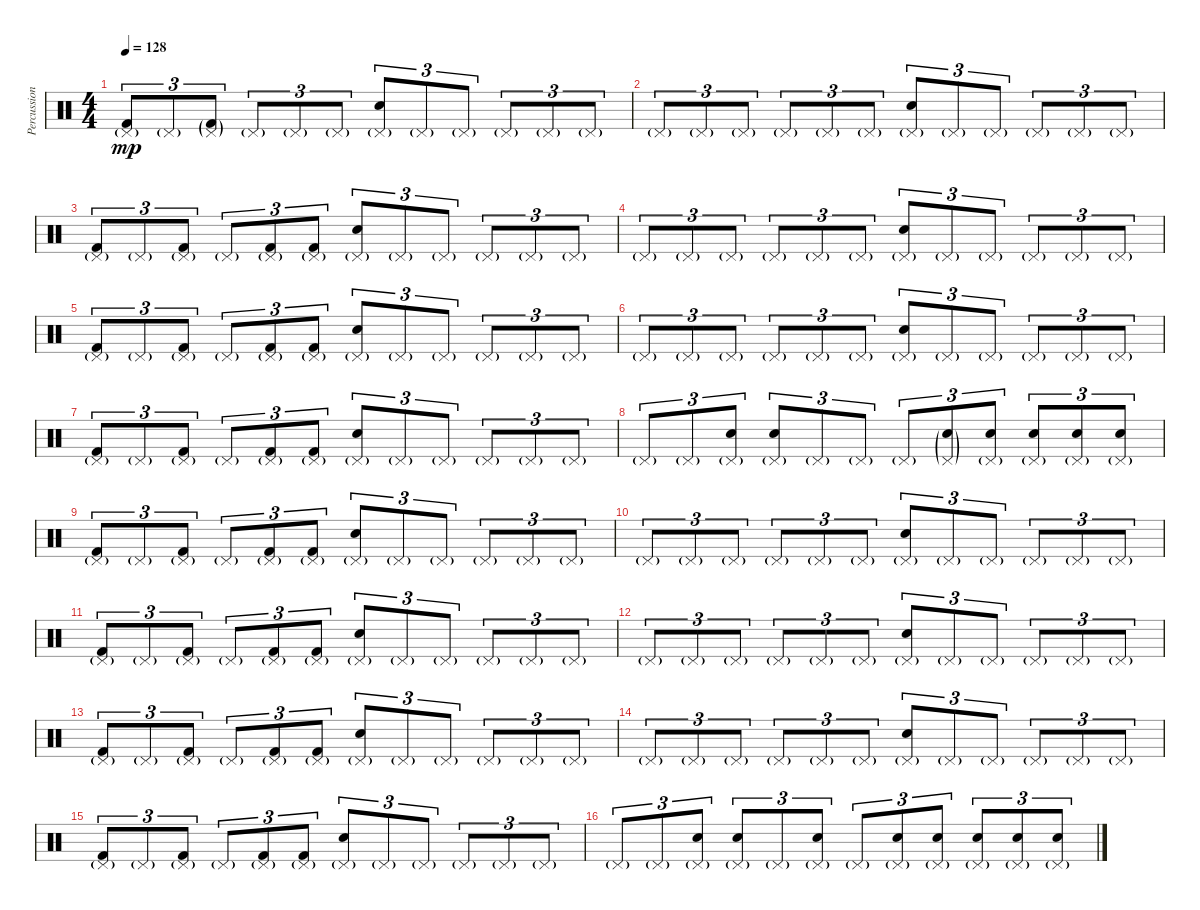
\track ("Percussions" "Percussion") {instrument percussion}
\staff {score}
\articulation defaults
\ts (4 4)
\tempo 128
\clef neutral
\ks c
("Pedal Hi-Hat (hit)"{g} "Kick (hit) 2").8{tu (3 2) dy mp} "Pedal Hi-Hat (hit)"{g}.8{tu (3 2)} ("Pedal Hi-Hat (hit)"{g} "Kick (hit) 2"{g}).8{tu (3 2)} "Pedal Hi-Hat (hit)"{g}.8{tu (3 2)} "Pedal Hi-Hat (hit)"{g}.8{tu (3 2)} "Pedal Hi-Hat (hit)"{g}.8{tu (3 2)} ("Pedal Hi-Hat (hit)"{g} "Electric Snare (hit)").8{tu (3 2)} "Pedal Hi-Hat (hit)"{g}.8{tu (3 2)} "Pedal Hi-Hat (hit)"{g}.8{tu (3 2)} "Pedal Hi-Hat (hit)"{g}.8{tu (3 2)} "Pedal Hi-Hat (hit)"{g}.8{tu (3 2)} "Pedal Hi-Hat (hit)"{g}.8{tu (3 2)} |
"Pedal Hi-Hat (hit)"{g}.8{tu (3 2)} "Pedal Hi-Hat (hit)"{g}.8{tu (3 2)} "Pedal Hi-Hat (hit)"{g}.8{tu (3 2)} "Pedal Hi-Hat (hit)"{g}.8{tu (3 2)} "Pedal Hi-Hat (hit)"{g}.8{tu (3 2)} "Pedal Hi-Hat (hit)"{g}.8{tu (3 2)} ("Pedal Hi-Hat (hit)"{g} "Electric Snare (hit)").8{tu (3 2)} "Pedal Hi-Hat (hit)"{g}.8{tu (3 2)} "Pedal Hi-Hat (hit)"{g}.8{tu (3 2)} "Pedal Hi-Hat (hit)"{g}.8{tu (3 2)} "Pedal Hi-Hat (hit)"{g}.8{tu (3 2)} "Pedal Hi-Hat (hit)"{g}.8{tu (3 2)} |
("Pedal Hi-Hat (hit)"{g} "Kick (hit) 2").8{tu (3 2)} "Pedal Hi-Hat (hit)"{g}.8{tu (3 2)} ("Pedal Hi-Hat (hit)"{g} "Kick (hit) 2").8{tu (3 2)} "Pedal Hi-Hat (hit)"{g}.8{tu (3 2)} ("Pedal Hi-Hat (hit)"{g} "Kick (hit) 2").8{tu (3 2)} ("Pedal Hi-Hat (hit)"{g} "Kick (hit) 2").8{tu (3 2)} ("Pedal Hi-Hat (hit)"{g} "Electric Snare (hit)").8{tu (3 2)} "Pedal Hi-Hat (hit)"{g}.8{tu (3 2)} "Pedal Hi-Hat (hit)"{g}.8{tu (3 2)} "Pedal Hi-Hat (hit)"{g}.8{tu (3 2)} "Pedal Hi-Hat (hit)"{g}.8{tu (3 2)} "Pedal Hi-Hat (hit)"{g}.8{tu (3 2)} |
"Pedal Hi-Hat (hit)"{g}.8{tu (3 2)} "Pedal Hi-Hat (hit)"{g}.8{tu (3 2)} "Pedal Hi-Hat (hit)"{g}.8{tu (3 2)} "Pedal Hi-Hat (hit)"{g}.8{tu (3 2)} "Pedal Hi-Hat (hit)"{g}.8{tu (3 2)} "Pedal Hi-Hat (hit)"{g}.8{tu (3 2)} ("Pedal Hi-Hat (hit)"{g} "Electric Snare (hit)").8{tu (3 2)} "Pedal Hi-Hat (hit)"{g}.8{tu (3 2)} "Pedal Hi-Hat (hit)"{g}.8{tu (3 2)} "Pedal Hi-Hat (hit)"{g}.8{tu (3 2)} "Pedal Hi-Hat (hit)"{g}.8{tu (3 2)} "Pedal Hi-Hat (hit)"{g}.8{tu (3 2)} |
("Pedal Hi-Hat (hit)"{g} "Kick (hit) 2").8{tu (3 2)} "Pedal Hi-Hat (hit)"{g}.8{tu (3 2)} ("Pedal Hi-Hat (hit)"{g} "Kick (hit) 2").8{tu (3 2)} "Pedal Hi-Hat (hit)"{g}.8{tu (3 2)} ("Pedal Hi-Hat (hit)"{g} "Kick (hit) 2").8{tu (3 2)} ("Pedal Hi-Hat (hit)"{g} "Kick (hit) 2").8{tu (3 2)} ("Pedal Hi-Hat (hit)"{g} "Electric Snare (hit)").8{tu (3 2)} "Pedal Hi-Hat (hit)"{g}.8{tu (3 2)} "Pedal Hi-Hat (hit)"{g}.8{tu (3 2)} "Pedal Hi-Hat (hit)"{g}.8{tu (3 2)} "Pedal Hi-Hat (hit)"{g}.8{tu (3 2)} "Pedal Hi-Hat (hit)"{g}.8{tu (3 2)} |
"Pedal Hi-Hat (hit)"{g}.8{tu (3 2)} "Pedal Hi-Hat (hit)"{g}.8{tu (3 2)} "Pedal Hi-Hat (hit)"{g}.8{tu (3 2)} "Pedal Hi-Hat (hit)"{g}.8{tu (3 2)} "Pedal Hi-Hat (hit)"{g}.8{tu (3 2)} "Pedal Hi-Hat (hit)"{g}.8{tu (3 2)} ("Pedal Hi-Hat (hit)"{g} "Electric Snare (hit)").8{tu (3 2)} "Pedal Hi-Hat (hit)"{g}.8{tu (3 2)} "Pedal Hi-Hat (hit)"{g}.8{tu (3 2)} "Pedal Hi-Hat (hit)"{g}.8{tu (3 2)} "Pedal Hi-Hat (hit)"{g}.8{tu (3 2)} "Pedal Hi-Hat (hit)"{g}.8{tu (3 2)} |
("Pedal Hi-Hat (hit)"{g} "Kick (hit) 2").8{tu (3 2)} "Pedal Hi-Hat (hit)"{g}.8{tu (3 2)} ("Pedal Hi-Hat (hit)"{g} "Kick (hit) 2").8{tu (3 2)} "Pedal Hi-Hat (hit)"{g}.8{tu (3 2)} ("Pedal Hi-Hat (hit)"{g} "Kick (hit) 2").8{tu (3 2)} ("Pedal Hi-Hat (hit)"{g} "Kick (hit) 2").8{tu (3 2)} ("Pedal Hi-Hat (hit)"{g} "Electric Snare (hit)").8{tu (3 2)} "Pedal Hi-Hat (hit)"{g}.8{tu (3 2)} "Pedal Hi-Hat (hit)"{g}.8{tu (3 2)} "Pedal Hi-Hat (hit)"{g}.8{tu (3 2)} "Pedal Hi-Hat (hit)"{g}.8{tu (3 2)} "Pedal Hi-Hat (hit)"{g}.8{tu (3 2)} |
"Pedal Hi-Hat (hit)"{g}.8{tu (3 2)} "Pedal Hi-Hat (hit)"{g}.8{tu (3 2)} ("Pedal Hi-Hat (hit)"{g} "Electric Snare (hit)").8{tu (3 2)} ("Pedal Hi-Hat (hit)"{g} "Electric Snare (hit)").8{tu (3 2)} "Pedal Hi-Hat (hit)"{g}.8{tu (3 2)} "Pedal Hi-Hat (hit)"{g}.8{tu (3 2)} "Pedal Hi-Hat (hit)"{g}.8{tu (3 2)} ("Pedal Hi-Hat (hit)"{g} "Electric Snare (hit)"{g}).8{tu (3 2)} ("Pedal Hi-Hat (hit)"{g} "Electric Snare (hit)").8{tu (3 2)} ("Pedal Hi-Hat (hit)"{g} "Electric Snare (hit)").8{tu (3 2)} ("Pedal Hi-Hat (hit)"{g} "Electric Snare (hit)").8{tu (3 2)} ("Pedal Hi-Hat (hit)"{g} "Electric Snare (hit)").8{tu (3 2)} |
("Pedal Hi-Hat (hit)"{g} "Kick (hit) 2").8{tu (3 2)} "Pedal Hi-Hat (hit)"{g}.8{tu (3 2)} ("Pedal Hi-Hat (hit)"{g} "Kick (hit) 2").8{tu (3 2)} "Pedal Hi-Hat (hit)"{g}.8{tu (3 2)} ("Pedal Hi-Hat (hit)"{g} "Kick (hit) 2").8{tu (3 2)} ("Pedal Hi-Hat (hit)"{g} "Kick (hit) 2").8{tu (3 2)} ("Pedal Hi-Hat (hit)"{g} "Electric Snare (hit)").8{tu (3 2)} "Pedal Hi-Hat (hit)"{g}.8{tu (3 2)} "Pedal Hi-Hat (hit)"{g}.8{tu (3 2)} "Pedal Hi-Hat (hit)"{g}.8{tu (3 2)} "Pedal Hi-Hat (hit)"{g}.8{tu (3 2)} "Pedal Hi-Hat (hit)"{g}.8{tu (3 2)} |
"Pedal Hi-Hat (hit)"{g}.8{tu (3 2)} "Pedal Hi-Hat (hit)"{g}.8{tu (3 2)} "Pedal Hi-Hat (hit)"{g}.8{tu (3 2)} "Pedal Hi-Hat (hit)"{g}.8{tu (3 2)} "Pedal Hi-Hat (hit)"{g}.8{tu (3 2)} "Pedal Hi-Hat (hit)"{g}.8{tu (3 2)} ("Pedal Hi-Hat (hit)"{g} "Electric Snare (hit)").8{tu (3 2)} "Pedal Hi-Hat (hit)"{g}.8{tu (3 2)} "Pedal Hi-Hat (hit)"{g}.8{tu (3 2)} "Pedal Hi-Hat (hit)"{g}.8{tu (3 2)} "Pedal Hi-Hat (hit)"{g}.8{tu (3 2)} "Pedal Hi-Hat (hit)"{g}.8{tu (3 2)} |
("Pedal Hi-Hat (hit)"{g} "Kick (hit) 2").8{tu (3 2)} "Pedal Hi-Hat (hit)"{g}.8{tu (3 2)} ("Pedal Hi-Hat (hit)"{g} "Kick (hit) 2").8{tu (3 2)} "Pedal Hi-Hat (hit)"{g}.8{tu (3 2)} ("Pedal Hi-Hat (hit)"{g} "Kick (hit) 2").8{tu (3 2)} ("Pedal Hi-Hat (hit)"{g} "Kick (hit) 2").8{tu (3 2)} ("Pedal Hi-Hat (hit)"{g} "Electric Snare (hit)").8{tu (3 2)} "Pedal Hi-Hat (hit)"{g}.8{tu (3 2)} "Pedal Hi-Hat (hit)"{g}.8{tu (3 2)} "Pedal Hi-Hat (hit)"{g}.8{tu (3 2)} "Pedal Hi-Hat (hit)"{g}.8{tu (3 2)} "Pedal Hi-Hat (hit)"{g}.8{tu (3 2)} |
"Pedal Hi-Hat (hit)"{g}.8{tu (3 2)} "Pedal Hi-Hat (hit)"{g}.8{tu (3 2)} "Pedal Hi-Hat (hit)"{g}.8{tu (3 2)} "Pedal Hi-Hat (hit)"{g}.8{tu (3 2)} "Pedal Hi-Hat (hit)"{g}.8{tu (3 2)} "Pedal Hi-Hat (hit)"{g}.8{tu (3 2)} ("Pedal Hi-Hat (hit)"{g} "Electric Snare (hit)").8{tu (3 2)} "Pedal Hi-Hat (hit)"{g}.8{tu (3 2)} "Pedal Hi-Hat (hit)"{g}.8{tu (3 2)} "Pedal Hi-Hat (hit)"{g}.8{tu (3 2)} "Pedal Hi-Hat (hit)"{g}.8{tu (3 2)} "Pedal Hi-Hat (hit)"{g}.8{tu (3 2)} |
("Pedal Hi-Hat (hit)"{g} "Kick (hit) 2").8{tu (3 2)} "Pedal Hi-Hat (hit)"{g}.8{tu (3 2)} ("Pedal Hi-Hat (hit)"{g} "Kick (hit) 2").8{tu (3 2)} "Pedal Hi-Hat (hit)"{g}.8{tu (3 2)} ("Pedal Hi-Hat (hit)"{g} "Kick (hit) 2").8{tu (3 2)} ("Pedal Hi-Hat (hit)"{g} "Kick (hit) 2").8{tu (3 2)} ("Pedal Hi-Hat (hit)"{g} "Electric Snare (hit)").8{tu (3 2)} "Pedal Hi-Hat (hit)"{g}.8{tu (3 2)} "Pedal Hi-Hat (hit)"{g}.8{tu (3 2)} "Pedal Hi-Hat (hit)"{g}.8{tu (3 2)} "Pedal Hi-Hat (hit)"{g}.8{tu (3 2)} "Pedal Hi-Hat (hit)"{g}.8{tu (3 2)} |
"Pedal Hi-Hat (hit)"{g}.8{tu (3 2)} "Pedal Hi-Hat (hit)"{g}.8{tu (3 2)} "Pedal Hi-Hat (hit)"{g}.8{tu (3 2)} "Pedal Hi-Hat (hit)"{g}.8{tu (3 2)} "Pedal Hi-Hat (hit)"{g}.8{tu (3 2)} "Pedal Hi-Hat (hit)"{g}.8{tu (3 2)} ("Pedal Hi-Hat (hit)"{g} "Electric Snare (hit)").8{tu (3 2)} "Pedal Hi-Hat (hit)"{g}.8{tu (3 2)} "Pedal Hi-Hat (hit)"{g}.8{tu (3 2)} "Pedal Hi-Hat (hit)"{g}.8{tu (3 2)} "Pedal Hi-Hat (hit)"{g}.8{tu (3 2)} "Pedal Hi-Hat (hit)"{g}.8{tu (3 2)} |
("Pedal Hi-Hat (hit)"{g} "Kick (hit) 2").8{tu (3 2)} "Pedal Hi-Hat (hit)"{g}.8{tu (3 2)} ("Pedal Hi-Hat (hit)"{g} "Kick (hit) 2").8{tu (3 2)} "Pedal Hi-Hat (hit)"{g}.8{tu (3 2)} ("Pedal Hi-Hat (hit)"{g} "Kick (hit) 2").8{tu (3 2)} ("Pedal Hi-Hat (hit)"{g} "Kick (hit) 2").8{tu (3 2)} ("Pedal Hi-Hat (hit)"{g} "Electric Snare (hit)").8{tu (3 2)} "Pedal Hi-Hat (hit)"{g}.8{tu (3 2)} "Pedal Hi-Hat (hit)"{g}.8{tu (3 2)} "Pedal Hi-Hat (hit)"{g}.8{tu (3 2)} "Pedal Hi-Hat (hit)"{g}.8{tu (3 2)} "Pedal Hi-Hat (hit)"{g}.8{tu (3 2)} |
"Pedal Hi-Hat (hit)"{g}.8{tu (3 2)} "Pedal Hi-Hat (hit)"{g}.8{tu (3 2)} ("Pedal Hi-Hat (hit)"{g} "Electric Snare (hit)").8{tu (3 2)} ("Pedal Hi-Hat (hit)"{g} "Electric Snare (hit)").8{tu (3 2)} "Pedal Hi-Hat (hit)"{g}.8{tu (3 2)} ("Pedal Hi-Hat (hit)"{g} "Electric Snare (hit)").8{tu (3 2)} "Pedal Hi-Hat (hit)"{g}.8{tu (3 2)} ("Pedal Hi-Hat (hit)"{g} "Electric Snare (hit)").8{tu (3 2)} ("Pedal Hi-Hat (hit)"{g} "Electric Snare (hit)").8{tu (3 2)} ("Pedal Hi-Hat (hit)"{g} "Electric Snare (hit)").8{tu (3 2)} ("Pedal Hi-Hat (hit)"{g} "Electric Snare (hit)").8{tu (3 2)} ("Pedal Hi-Hat (hit)"{g} "Electric Snare (hit)").8{tu (3 2)}
